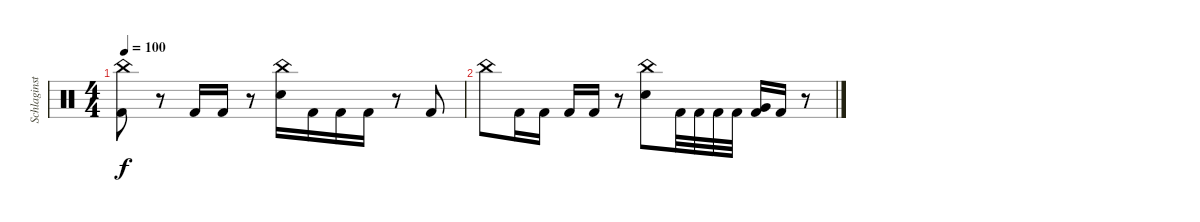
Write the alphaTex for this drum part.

\track ("Schlaginstrumente - Auswahl" "Schlaginst") {instrument percussion}
\staff {score}
\articulation defaults
\ts (4 4)
\tempo 100
\clef neutral
\ks c
("China (hit)" "Kick (hit) 2").8{dy f} r.8 "Kick (hit) 2".16 "Kick (hit) 2".16 r.8 ("China (hit)" "Electric Snare (hit)").16 "Kick (hit) 2".16 "Kick (hit) 2".16 "Kick (hit) 2".16 r.8 "Kick (hit) 2".8 |
"China (hit)".8 "Kick (hit) 2".16 "Kick (hit) 2".16 "Kick (hit) 2".16 "Kick (hit) 2".16 r.8 ("China (hit)" "Electric Snare (hit)").8 "Kick (hit) 2".32 "Kick (hit) 2".32 "Kick (hit) 2".32 "Kick (hit) 2".32 ("Very Low Tom (hit)" "Kick (hit) 2").16 "Kick (hit) 2".16 r.8
